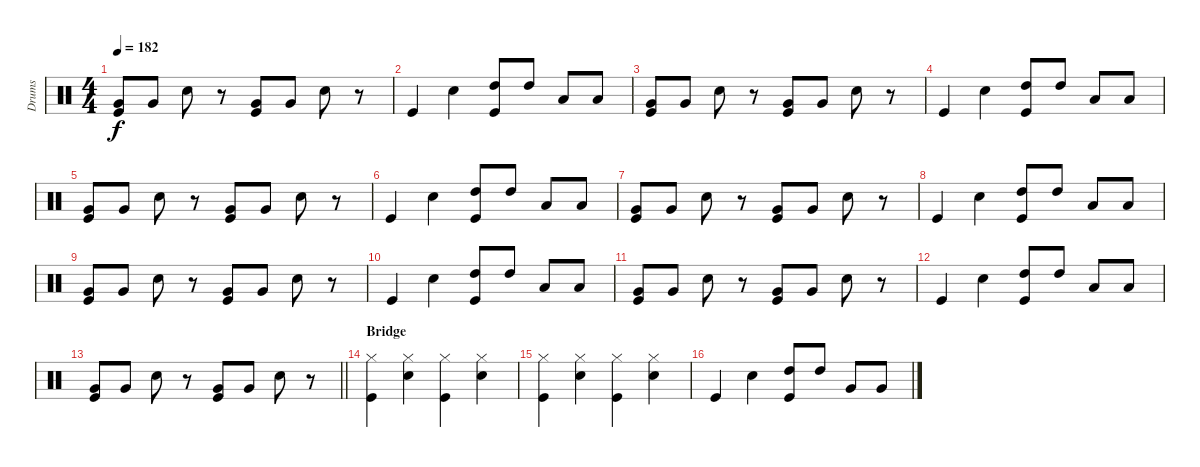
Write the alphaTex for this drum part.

\track ("Drums" "Drums") {instrument percussion}
\staff {score}
\articulation defaults
\ts (4 4)
\tempo 182
\clef neutral
\ks c
("Very Low Tom (hit)" "Kick (hit)").8{dy f} "Very Low Tom (hit)".8 "Snare (hit) 2".8 r.8 ("Very Low Tom (hit)" "Kick (hit)").8 "Very Low Tom (hit)".8 "Snare (hit) 2".8 r.8 |
"Kick (hit)".4 "Snare (hit) 2".4 ("High Tom (hit)" "Kick (hit)").8 "High Tom (hit)".8 "Low Tom (hit)".8 "Low Tom (hit)".8 |
("Very Low Tom (hit)" "Kick (hit)").8 "Very Low Tom (hit)".8 "Snare (hit) 2".8 r.8 ("Very Low Tom (hit)" "Kick (hit)").8 "Very Low Tom (hit)".8 "Snare (hit) 2".8 r.8 |
"Kick (hit)".4 "Snare (hit) 2".4 ("High Tom (hit)" "Kick (hit)").8 "High Tom (hit)".8 "Low Tom (hit)".8 "Low Tom (hit)".8 |
("Very Low Tom (hit)" "Kick (hit)").8 "Very Low Tom (hit)".8 "Snare (hit) 2".8 r.8 ("Very Low Tom (hit)" "Kick (hit)").8 "Very Low Tom (hit)".8 "Snare (hit) 2".8 r.8 |
"Kick (hit)".4 "Snare (hit) 2".4 ("High Tom (hit)" "Kick (hit)").8 "High Tom (hit)".8 "Low Tom (hit)".8 "Low Tom (hit)".8 |
("Very Low Tom (hit)" "Kick (hit)").8 "Very Low Tom (hit)".8 "Snare (hit) 2".8 r.8 ("Very Low Tom (hit)" "Kick (hit)").8 "Very Low Tom (hit)".8 "Snare (hit) 2".8 r.8 |
"Kick (hit)".4 "Snare (hit) 2".4 ("High Tom (hit)" "Kick (hit)").8 "High Tom (hit)".8 "Low Tom (hit)".8 "Low Tom (hit)".8 |
("Very Low Tom (hit)" "Kick (hit)").8 "Very Low Tom (hit)".8 "Snare (hit) 2".8 r.8 ("Very Low Tom (hit)" "Kick (hit)").8 "Very Low Tom (hit)".8 "Snare (hit) 2".8 r.8 |
"Kick (hit)".4 "Snare (hit) 2".4 ("High Tom (hit)" "Kick (hit)").8 "High Tom (hit)".8 "Low Tom (hit)".8 "Low Tom (hit)".8 |
("Very Low Tom (hit)" "Kick (hit)").8 "Very Low Tom (hit)".8 "Snare (hit) 2".8 r.8 ("Very Low Tom (hit)" "Kick (hit)").8 "Very Low Tom (hit)".8 "Snare (hit) 2".8 r.8 |
"Kick (hit)".4 "Snare (hit) 2".4 ("High Tom (hit)" "Kick (hit)").8 "High Tom (hit)".8 "Low Tom (hit)".8 "Low Tom (hit)".8 |
\barLineRight lightlight
("Very Low Tom (hit)" "Kick (hit)").8 "Very Low Tom (hit)".8 "Snare (hit) 2".8 r.8 ("Very Low Tom (hit)" "Kick (hit)").8 "Very Low Tom (hit)".8 "Snare (hit) 2".8 r.8 |
\section ("" "Bridge")
("Kick (hit)" "Hi-Hat (closed)").4 ("Snare (hit) 2" "Hi-Hat (closed)").4 ("Kick (hit)" "Hi-Hat (closed)").4 ("Snare (hit) 2" "Hi-Hat (closed)").4 |
("Kick (hit)" "Hi-Hat (closed)").4 ("Snare (hit) 2" "Hi-Hat (closed)").4 ("Kick (hit)" "Hi-Hat (closed)").4 ("Snare (hit) 2" "Hi-Hat (closed)").4 |
"Kick (hit)".4 "Snare (hit) 2".4 ("High Tom (hit)" "Kick (hit)").8 "High Tom (hit)".8 "Very Low Tom (hit)".8 "Very Low Tom (hit)".8
